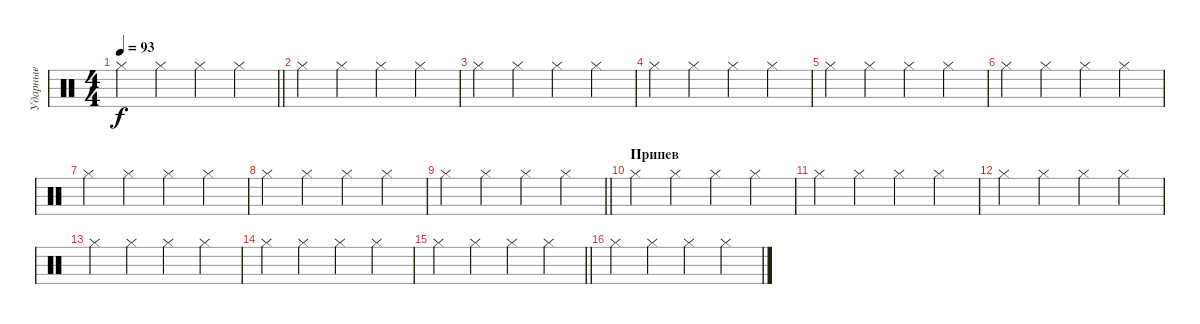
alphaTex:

\track ("Ударные" "Ударные") {instrument percussion}
\staff {score}
\articulation defaults
\ts (4 4)
\tempo 93
\clef neutral
\barLineRight lightlight
\ks c "Hi-Hat (closed)".4{dy f} "Hi-Hat (closed)".4 "Hi-Hat (closed)".4 "Hi-Hat (closed)".4
|
"Hi-Hat (closed)".4 "Hi-Hat (closed)".4 "Hi-Hat (closed)".4 "Hi-Hat (closed)".4 |
"Hi-Hat (closed)".4 "Hi-Hat (closed)".4 "Hi-Hat (closed)".4 "Hi-Hat (closed)".4 |
"Hi-Hat (closed)".4 "Hi-Hat (closed)".4 "Hi-Hat (closed)".4 "Hi-Hat (closed)".4 |
"Hi-Hat (closed)".4 "Hi-Hat (closed)".4 "Hi-Hat (closed)".4 "Hi-Hat (closed)".4 |
"Hi-Hat (closed)".4 "Hi-Hat (closed)".4 "Hi-Hat (closed)".4 "Hi-Hat (closed)".4 |
"Hi-Hat (closed)".4 "Hi-Hat (closed)".4 "Hi-Hat (closed)".4 "Hi-Hat (closed)".4 |
"Hi-Hat (closed)".4 "Hi-Hat (closed)".4 "Hi-Hat (closed)".4 "Hi-Hat (closed)".4 |
\barLineRight lightlight "Hi-Hat (closed)".4 "Hi-Hat (closed)".4 "Hi-Hat (closed)".4 "Hi-Hat (closed)".4
|
\section ("" "Припев")
"Hi-Hat (closed)".4 "Hi-Hat (closed)".4 "Hi-Hat (closed)".4 "Hi-Hat (closed)".4 |
"Hi-Hat (closed)".4 "Hi-Hat (closed)".4 "Hi-Hat (closed)".4 "Hi-Hat (closed)".4 |
"Hi-Hat (closed)".4 "Hi-Hat (closed)".4 "Hi-Hat (closed)".4 "Hi-Hat (closed)".4 |
"Hi-Hat (closed)".4 "Hi-Hat (closed)".4 "Hi-Hat (closed)".4 "Hi-Hat (closed)".4 |
"Hi-Hat (closed)".4 "Hi-Hat (closed)".4 "Hi-Hat (closed)".4 "Hi-Hat (closed)".4 |
\barLineRight lightlight "Hi-Hat (closed)".4 "Hi-Hat (closed)".4 "Hi-Hat (closed)".4 "Hi-Hat (closed)".4
|
"Hi-Hat (closed)".4 "Hi-Hat (closed)".4 "Hi-Hat (closed)".4 "Hi-Hat (closed)".4
